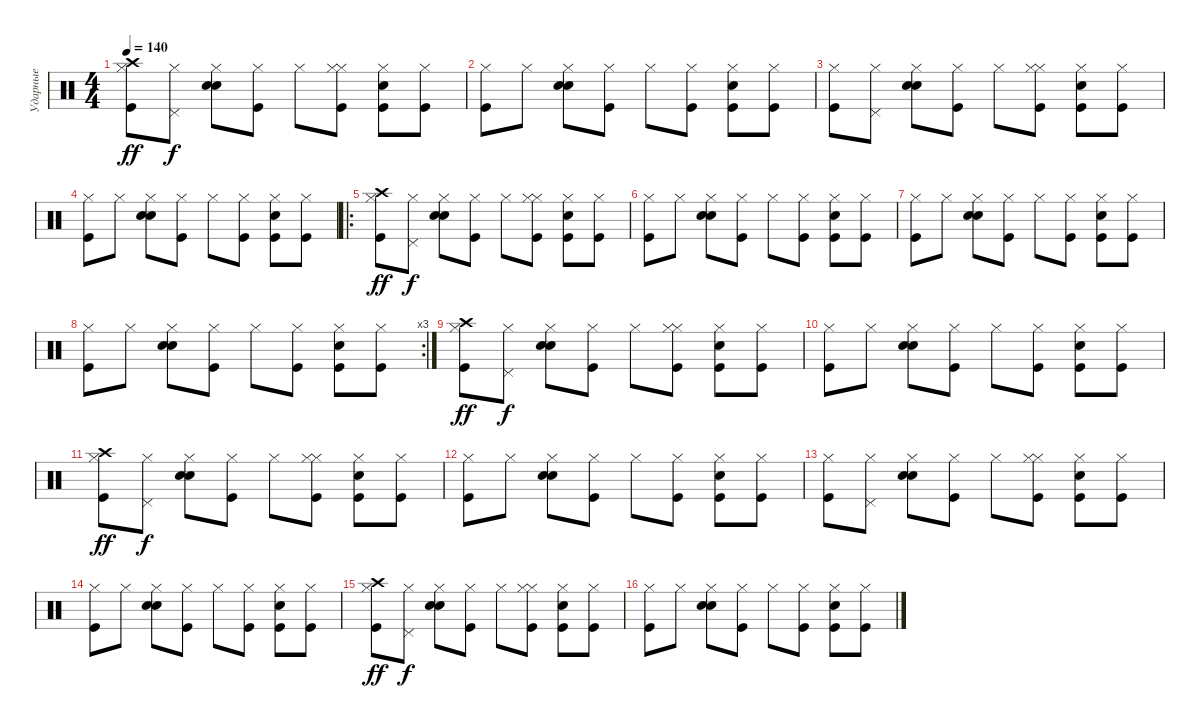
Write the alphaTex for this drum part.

\track ("Ударные" "Ударные") {instrument percussion}
\staff {score}
\articulation defaults
\ts (4 4)
\tempo 140
\clef neutral
\ks c
("Crash high (hit)" "Hi-Hat (closed)" "Kick (hit)").8{dy ff} ("Hi-Hat (closed)" "Pedal Hi-Hat (hit)").8{dy f} ("Hi-Hat (closed)" "Snare (hit) 2" "Snare (hit) 2").8 ("Hi-Hat (closed)" "Kick (hit)").8 "Hi-Hat (closed)".8 ("Hi-Hat (closed)" "Hi-Hat (closed)" "Kick (hit)").8 ("Hi-Hat (closed)" "Snare (hit) 2" "Kick (hit)").8 ("Hi-Hat (closed)" "Kick (hit)").8 |
("Hi-Hat (closed)" "Kick (hit)").8 "Hi-Hat (closed)".8 ("Hi-Hat (closed)" "Snare (hit) 2" "Snare (hit) 2").8 ("Hi-Hat (closed)" "Kick (hit)").8 "Hi-Hat (closed)".8 ("Hi-Hat (closed)" "Kick (hit)").8 ("Hi-Hat (closed)" "Snare (hit) 2" "Kick (hit)").8 ("Hi-Hat (closed)" "Kick (hit)").8 |
("Hi-Hat (closed)" "Kick (hit)").8 ("Hi-Hat (closed)" "Pedal Hi-Hat (hit)").8 ("Hi-Hat (closed)" "Snare (hit) 2" "Snare (hit) 2").8 ("Hi-Hat (closed)" "Kick (hit)").8 "Hi-Hat (closed)".8 ("Hi-Hat (closed)" "Hi-Hat (closed)" "Kick (hit)").8 ("Hi-Hat (closed)" "Snare (hit) 2" "Kick (hit)").8 ("Hi-Hat (closed)" "Kick (hit)").8 |
("Hi-Hat (closed)" "Kick (hit)").8 "Hi-Hat (closed)".8 ("Hi-Hat (closed)" "Snare (hit) 2" "Snare (hit) 2").8 ("Hi-Hat (closed)" "Kick (hit)").8 "Hi-Hat (closed)".8 ("Hi-Hat (closed)" "Kick (hit)").8 ("Hi-Hat (closed)" "Snare (hit) 2" "Kick (hit)").8 ("Hi-Hat (closed)" "Kick (hit)").8 |
\ro
("Crash high (hit)" "Hi-Hat (closed)" "Kick (hit)").8{dy ff} ("Hi-Hat (closed)" "Pedal Hi-Hat (hit)").8{dy f} ("Hi-Hat (closed)" "Snare (hit) 2" "Snare (hit) 2").8 ("Hi-Hat (closed)" "Kick (hit)").8 "Hi-Hat (closed)".8 ("Hi-Hat (closed)" "Hi-Hat (closed)" "Kick (hit)").8 ("Hi-Hat (closed)" "Snare (hit) 2" "Kick (hit)").8 ("Hi-Hat (closed)" "Kick (hit)").8 |
("Hi-Hat (closed)" "Kick (hit)").8 "Hi-Hat (closed)".8 ("Hi-Hat (closed)" "Snare (hit) 2" "Snare (hit) 2").8 ("Hi-Hat (closed)" "Kick (hit)").8 "Hi-Hat (closed)".8 ("Hi-Hat (closed)" "Kick (hit)").8 ("Hi-Hat (closed)" "Snare (hit) 2" "Kick (hit)").8 ("Hi-Hat (closed)" "Kick (hit)").8 |
("Hi-Hat (closed)" "Kick (hit)").8 "Hi-Hat (closed)".8 ("Hi-Hat (closed)" "Snare (hit) 2" "Snare (hit) 2").8 ("Hi-Hat (closed)" "Kick (hit)").8 "Hi-Hat (closed)".8 ("Hi-Hat (closed)" "Kick (hit)").8 ("Hi-Hat (closed)" "Snare (hit) 2" "Kick (hit)").8 ("Hi-Hat (closed)" "Kick (hit)").8 |
\rc 3
("Hi-Hat (closed)" "Kick (hit)").8 "Hi-Hat (closed)".8 ("Hi-Hat (closed)" "Snare (hit) 2" "Snare (hit) 2").8 ("Hi-Hat (closed)" "Kick (hit)").8 "Hi-Hat (closed)".8 ("Hi-Hat (closed)" "Kick (hit)").8 ("Hi-Hat (closed)" "Snare (hit) 2" "Kick (hit)").8 ("Hi-Hat (closed)" "Kick (hit)").8 |
("Crash high (hit)" "Hi-Hat (closed)" "Kick (hit)").8{dy ff} ("Hi-Hat (closed)" "Pedal Hi-Hat (hit)").8{dy f} ("Hi-Hat (closed)" "Snare (hit) 2" "Snare (hit) 2").8 ("Hi-Hat (closed)" "Kick (hit)").8 "Hi-Hat (closed)".8 ("Hi-Hat (closed)" "Hi-Hat (closed)" "Kick (hit)").8 ("Hi-Hat (closed)" "Snare (hit) 2" "Kick (hit)").8 ("Hi-Hat (closed)" "Kick (hit)").8 |
("Hi-Hat (closed)" "Kick (hit)").8 "Hi-Hat (closed)".8 ("Hi-Hat (closed)" "Snare (hit) 2" "Snare (hit) 2").8 ("Hi-Hat (closed)" "Kick (hit)").8 "Hi-Hat (closed)".8 ("Hi-Hat (closed)" "Kick (hit)").8 ("Hi-Hat (closed)" "Snare (hit) 2" "Kick (hit)").8 ("Hi-Hat (closed)" "Kick (hit)").8 |
("Crash high (hit)" "Hi-Hat (closed)" "Kick (hit)").8{dy ff} ("Hi-Hat (closed)" "Pedal Hi-Hat (hit)").8{dy f} ("Hi-Hat (closed)" "Snare (hit) 2" "Snare (hit) 2").8 ("Hi-Hat (closed)" "Kick (hit)").8 "Hi-Hat (closed)".8 ("Hi-Hat (closed)" "Hi-Hat (closed)" "Kick (hit)").8 ("Hi-Hat (closed)" "Snare (hit) 2" "Kick (hit)").8 ("Hi-Hat (closed)" "Kick (hit)").8 |
("Hi-Hat (closed)" "Kick (hit)").8 "Hi-Hat (closed)".8 ("Hi-Hat (closed)" "Snare (hit) 2" "Snare (hit) 2").8 ("Hi-Hat (closed)" "Kick (hit)").8{volume 11} "Hi-Hat (closed)".8 ("Hi-Hat (closed)" "Kick (hit)").8 ("Hi-Hat (closed)" "Snare (hit) 2" "Kick (hit)").8 ("Hi-Hat (closed)" "Kick (hit)").8 |
("Hi-Hat (closed)" "Kick (hit)").8 ("Hi-Hat (closed)" "Pedal Hi-Hat (hit)").8 ("Hi-Hat (closed)" "Snare (hit) 2" "Snare (hit) 2").8 ("Hi-Hat (closed)" "Kick (hit)").8 "Hi-Hat (closed)".8 ("Hi-Hat (closed)" "Hi-Hat (closed)" "Kick (hit)").8 ("Hi-Hat (closed)" "Snare (hit) 2" "Kick (hit)").8 ("Hi-Hat (closed)" "Kick (hit)").8 |
("Hi-Hat (closed)" "Kick (hit)").8 "Hi-Hat (closed)".8 ("Hi-Hat (closed)" "Snare (hit) 2" "Snare (hit) 2").8 ("Hi-Hat (closed)" "Kick (hit)").8{volume 8} "Hi-Hat (closed)".8 ("Hi-Hat (closed)" "Kick (hit)").8 ("Hi-Hat (closed)" "Snare (hit) 2" "Kick (hit)").8 ("Hi-Hat (closed)" "Kick (hit)").8 |
("Crash high (hit)" "Hi-Hat (closed)" "Kick (hit)").8{dy ff} ("Hi-Hat (closed)" "Pedal Hi-Hat (hit)").8{dy f} ("Hi-Hat (closed)" "Snare (hit) 2" "Snare (hit) 2").8 ("Hi-Hat (closed)" "Kick (hit)").8 "Hi-Hat (closed)".8 ("Hi-Hat (closed)" "Hi-Hat (closed)" "Kick (hit)").8 ("Hi-Hat (closed)" "Snare (hit) 2" "Kick (hit)").8 ("Hi-Hat (closed)" "Kick (hit)").8 |
("Hi-Hat (closed)" "Kick (hit)").8 "Hi-Hat (closed)".8 ("Hi-Hat (closed)" "Snare (hit) 2" "Snare (hit) 2").8 ("Hi-Hat (closed)" "Kick (hit)").8{volume 5} "Hi-Hat (closed)".8 ("Hi-Hat (closed)" "Kick (hit)").8 ("Hi-Hat (closed)" "Snare (hit) 2" "Kick (hit)").8 ("Hi-Hat (closed)" "Kick (hit)").8
